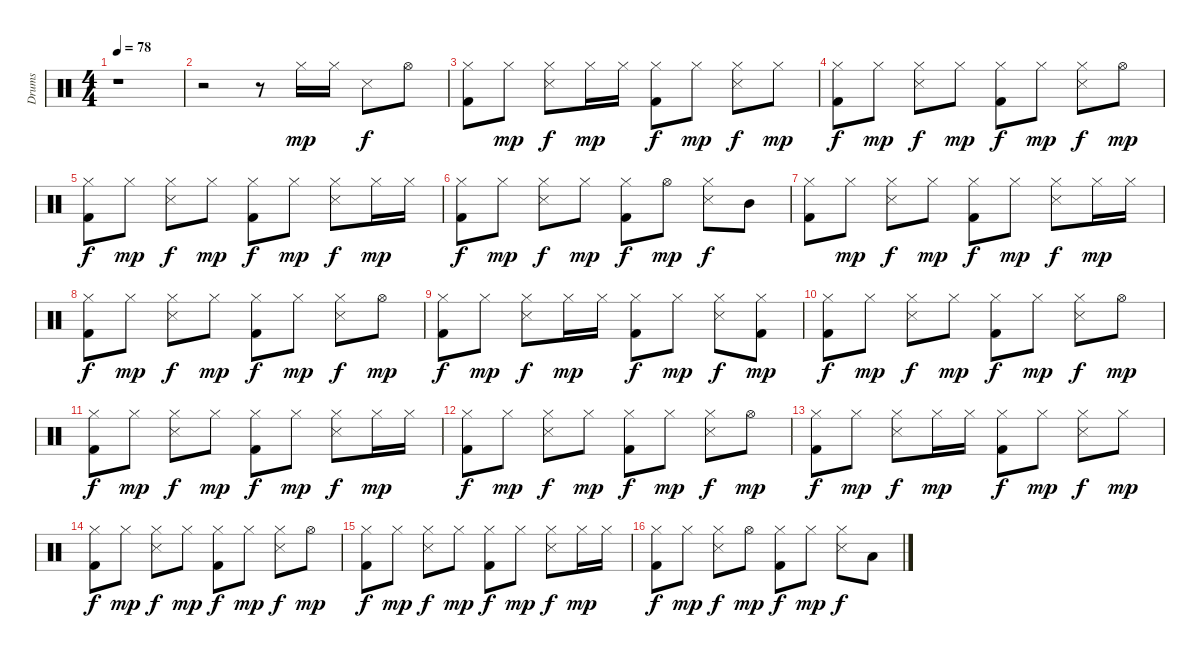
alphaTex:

\track ("Drums" "Drums") {instrument percussion}
\staff {score}
\articulation defaults
\ts (4 4)
\tempo 78
\clef neutral
\ks c
r.1{dy f} |
r.2 r.8 "Hi-Hat (closed)".16{dy mp} "Hi-Hat (closed)".16 "Snare (side stick) 3".8{dy f} "Hi-Hat (open)".8 |
("Hi-Hat (closed)" "Kick (hit) 2").8 "Hi-Hat (closed)".8{dy mp} ("Hi-Hat (closed)" "Snare (side stick) 3").8{dy f} "Hi-Hat (closed)".16{dy mp} "Hi-Hat (closed)".16 ("Hi-Hat (closed)" "Kick (hit) 2").8{dy f} "Hi-Hat (closed)".8{dy mp} ("Hi-Hat (closed)" "Snare (side stick) 3").8{dy f} "Hi-Hat (closed)".8{dy mp} |
("Hi-Hat (closed)" "Kick (hit) 2").8{dy f} "Hi-Hat (closed)".8{dy mp} ("Hi-Hat (closed)" "Snare (side stick) 3").8{dy f} "Hi-Hat (closed)".8{dy mp} ("Hi-Hat (closed)" "Kick (hit) 2").8{dy f} "Hi-Hat (closed)".8{dy mp} ("Hi-Hat (closed)" "Snare (side stick) 3").8{dy f} "Hi-Hat (open)".8{dy mp} |
("Hi-Hat (closed)" "Kick (hit) 2").8{dy f} "Hi-Hat (closed)".8{dy mp} ("Hi-Hat (closed)" "Snare (side stick) 3").8{dy f} "Hi-Hat (closed)".8{dy mp} ("Hi-Hat (closed)" "Kick (hit) 2").8{dy f} "Hi-Hat (closed)".8{dy mp} ("Hi-Hat (closed)" "Snare (side stick) 3").8{dy f} "Hi-Hat (closed)".16{dy mp} "Hi-Hat (closed)".16 |
("Hi-Hat (closed)" "Kick (hit) 2").8{dy f} "Hi-Hat (closed)".8{dy mp} ("Hi-Hat (closed)" "Snare (side stick) 3").8{dy f} "Hi-Hat (closed)".8{dy mp} ("Hi-Hat (closed)" "Kick (hit) 2").8{dy f} "Hi-Hat (open)".8{dy mp} ("Hi-Hat (closed)" "Snare (side stick) 3").8{dy f} "Mid Tom (hit)".8 |
("Hi-Hat (closed)" "Kick (hit) 2").8 "Hi-Hat (closed)".8{dy mp} ("Hi-Hat (closed)" "Snare (side stick) 3").8{dy f} "Hi-Hat (closed)".8{dy mp} ("Hi-Hat (closed)" "Kick (hit) 2").8{dy f} "Hi-Hat (closed)".8{dy mp} ("Hi-Hat (closed)" "Snare (side stick) 3").8{dy f} "Hi-Hat (closed)".16{dy mp} "Hi-Hat (closed)".16 |
("Hi-Hat (closed)" "Kick (hit) 2").8{dy f} "Hi-Hat (closed)".8{dy mp} ("Hi-Hat (closed)" "Snare (side stick) 3").8{dy f} "Hi-Hat (closed)".8{dy mp} ("Hi-Hat (closed)" "Kick (hit) 2").8{dy f} "Hi-Hat (closed)".8{dy mp} ("Hi-Hat (closed)" "Snare (side stick) 3").8{dy f} "Hi-Hat (open)".8{dy mp} |
("Hi-Hat (closed)" "Kick (hit) 2").8{dy f} "Hi-Hat (closed)".8{dy mp} ("Hi-Hat (closed)" "Snare (side stick) 3").8{dy f} "Hi-Hat (closed)".16{dy mp} "Hi-Hat (closed)".16 ("Hi-Hat (closed)" "Kick (hit) 2").8{dy f} "Hi-Hat (closed)".8{dy mp} ("Hi-Hat (closed)" "Snare (side stick) 3").8{dy f} ("Hi-Hat (closed)" "Kick (hit) 2").8{dy mp} |
("Hi-Hat (closed)" "Kick (hit) 2").8{dy f} "Hi-Hat (closed)".8{dy mp} ("Hi-Hat (closed)" "Snare (side stick) 3").8{dy f} "Hi-Hat (closed)".8{dy mp} ("Hi-Hat (closed)" "Kick (hit) 2").8{dy f} "Hi-Hat (closed)".8{dy mp} ("Hi-Hat (closed)" "Snare (side stick) 3").8{dy f} "Hi-Hat (open)".8{dy mp} |
("Hi-Hat (closed)" "Kick (hit) 2").8{dy f} "Hi-Hat (closed)".8{dy mp} ("Hi-Hat (closed)" "Snare (side stick) 3").8{dy f} "Hi-Hat (closed)".8{dy mp} ("Hi-Hat (closed)" "Kick (hit) 2").8{dy f} "Hi-Hat (closed)".8{dy mp} ("Hi-Hat (closed)" "Snare (side stick) 3").8{dy f} "Hi-Hat (closed)".16{dy mp} "Hi-Hat (closed)".16 |
("Hi-Hat (closed)" "Kick (hit) 2").8{dy f} "Hi-Hat (closed)".8{dy mp} ("Hi-Hat (closed)" "Snare (side stick) 3").8{dy f} "Hi-Hat (closed)".8{dy mp} ("Hi-Hat (closed)" "Kick (hit) 2").8{dy f} "Hi-Hat (closed)".8{dy mp} ("Hi-Hat (closed)" "Snare (side stick) 3").8{dy f} "Hi-Hat (open)".8{dy mp} |
("Hi-Hat (closed)" "Kick (hit) 2").8{dy f} "Hi-Hat (closed)".8{dy mp} ("Hi-Hat (closed)" "Snare (side stick) 3").8{dy f} "Hi-Hat (closed)".16{dy mp} "Hi-Hat (closed)".16 ("Hi-Hat (closed)" "Kick (hit) 2").8{dy f} "Hi-Hat (closed)".8{dy mp} ("Hi-Hat (closed)" "Snare (side stick) 3").8{dy f} "Hi-Hat (closed)".8{dy mp} |
("Hi-Hat (closed)" "Kick (hit) 2").8{dy f} "Hi-Hat (closed)".8{dy mp} ("Hi-Hat (closed)" "Snare (side stick) 3").8{dy f} "Hi-Hat (closed)".8{dy mp} ("Hi-Hat (closed)" "Kick (hit) 2").8{dy f} "Hi-Hat (closed)".8{dy mp} ("Hi-Hat (closed)" "Snare (side stick) 3").8{dy f} "Hi-Hat (open)".8{dy mp} |
("Hi-Hat (closed)" "Kick (hit) 2").8{dy f} "Hi-Hat (closed)".8{dy mp} ("Hi-Hat (closed)" "Snare (side stick) 3").8{dy f} "Hi-Hat (closed)".8{dy mp} ("Hi-Hat (closed)" "Kick (hit) 2").8{dy f} "Hi-Hat (closed)".8{dy mp} ("Hi-Hat (closed)" "Snare (side stick) 3").8{dy f} "Hi-Hat (closed)".16{dy mp} "Hi-Hat (closed)".16 |
("Hi-Hat (closed)" "Kick (hit) 2").8{dy f} "Hi-Hat (closed)".8{dy mp} ("Hi-Hat (closed)" "Snare (side stick) 3").8{dy f} "Hi-Hat (open)".8{dy mp} ("Hi-Hat (closed)" "Kick (hit) 2").8{dy f} "Hi-Hat (closed)".8{dy mp} ("Hi-Hat (closed)" "Snare (side stick) 3").8{dy f} "Low Tom (hit)".8
